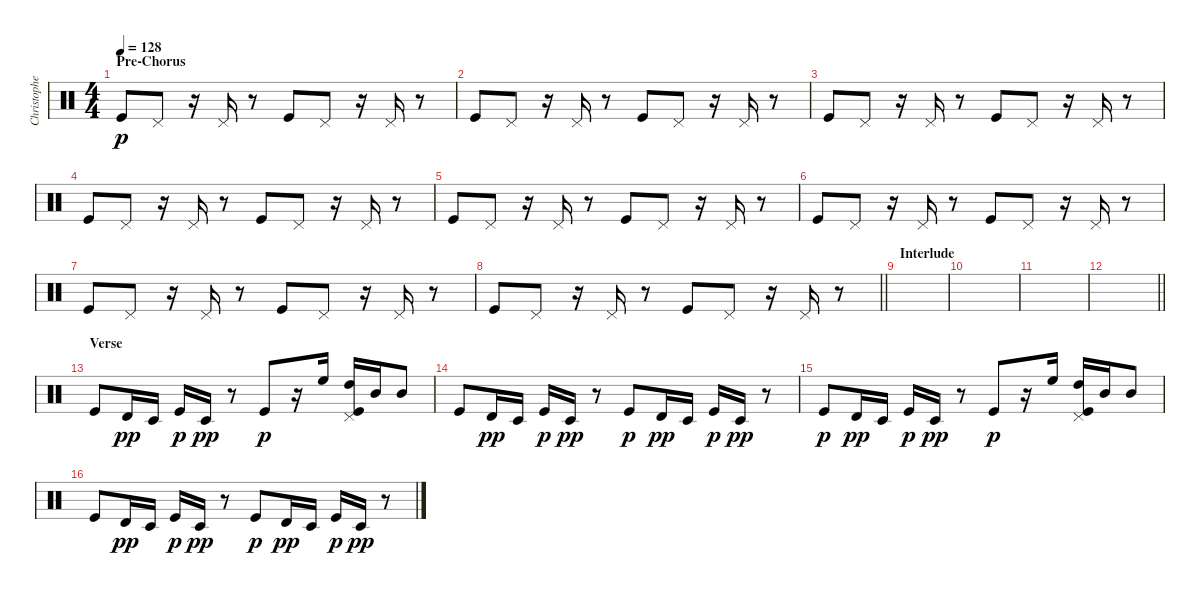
\track ("Christopher - Drum Effects" "Christophe") {instrument percussion}
\staff {score}
\articulation defaults
\ts (4 4)
\section ("" "Pre-Chorus")
\tempo 128
\clef neutral
\ks c "Kick (hit)".8{dy p} "Pedal Hi-Hat (hit)".8
r.16 "Pedal Hi-Hat (hit)".16 r.8 "Kick (hit)".8 "Pedal Hi-Hat (hit)".8 r.16 "Pedal Hi-Hat (hit)".16 r.8 |
"Kick (hit)".8 "Pedal Hi-Hat (hit)".8 r.16 "Pedal Hi-Hat (hit)".16 r.8 "Kick (hit)".8 "Pedal Hi-Hat (hit)".8 r.16 "Pedal Hi-Hat (hit)".16 r.8 |
"Kick (hit)".8 "Pedal Hi-Hat (hit)".8 r.16 "Pedal Hi-Hat (hit)".16 r.8 "Kick (hit)".8 "Pedal Hi-Hat (hit)".8 r.16 "Pedal Hi-Hat (hit)".16 r.8 |
"Kick (hit)".8 "Pedal Hi-Hat (hit)".8 r.16 "Pedal Hi-Hat (hit)".16 r.8 "Kick (hit)".8 "Pedal Hi-Hat (hit)".8 r.16 "Pedal Hi-Hat (hit)".16 r.8 |
"Kick (hit)".8 "Pedal Hi-Hat (hit)".8 r.16 "Pedal Hi-Hat (hit)".16 r.8 "Kick (hit)".8 "Pedal Hi-Hat (hit)".8 r.16 "Pedal Hi-Hat (hit)".16 r.8 |
"Kick (hit)".8 "Pedal Hi-Hat (hit)".8 r.16 "Pedal Hi-Hat (hit)".16 r.8 "Kick (hit)".8 "Pedal Hi-Hat (hit)".8 r.16 "Pedal Hi-Hat (hit)".16 r.8 |
"Kick (hit)".8 "Pedal Hi-Hat (hit)".8 r.16 "Pedal Hi-Hat (hit)".16 r.8 "Kick (hit)".8 "Pedal Hi-Hat (hit)".8 r.16 "Pedal Hi-Hat (hit)".16 r.8 |
\barLineRight lightlight "Kick (hit)".8 "Pedal Hi-Hat (hit)".8
r.16 "Pedal Hi-Hat (hit)".16 r.8 "Kick (hit)".8 "Pedal Hi-Hat (hit)".8 r.16 "Pedal Hi-Hat (hit)".16 r.8 |
\section ("" "Interlude")
|
|
|
\barLineRight lightlight
|
\section ("" "Verse")
"Kick (hit)".8 "Timbale high (hit)".16{dy pp} "Timbale low (hit)".16 "Kick (hit)".16{dy p} "Timbale low (hit)".16{dy pp} r.8 "Kick (hit)".8{dy p} r.16 "High Floor Tom (hit)".16 ("Pedal Hi-Hat (hit)" "High Tom (hit)" "Kick (hit)").16 "Mid Tom (hit)".16 "Mid Tom (hit)".8 |
"Kick (hit)".8 "Timbale high (hit)".16{dy pp} "Timbale low (hit)".16 "Kick (hit)".16{dy p} "Timbale low (hit)".16{dy pp} r.8 "Kick (hit)".8{dy p} "Timbale high (hit)".16{dy pp} "Timbale low (hit)".16 "Kick (hit)".16{dy p} "Timbale low (hit)".16{dy pp} r.8 |
"Kick (hit)".8{dy p} "Timbale high (hit)".16{dy pp} "Timbale low (hit)".16 "Kick (hit)".16{dy p} "Timbale low (hit)".16{dy pp} r.8 "Kick (hit)".8{dy p} r.16 "High Floor Tom (hit)".16 ("Pedal Hi-Hat (hit)" "High Tom (hit)" "Kick (hit)").16 "Mid Tom (hit)".16 "Mid Tom (hit)".8 |
"Kick (hit)".8 "Timbale high (hit)".16{dy pp} "Timbale low (hit)".16 "Kick (hit)".16{dy p} "Timbale low (hit)".16{dy pp} r.8 "Kick (hit)".8{dy p} "Timbale high (hit)".16{dy pp} "Timbale low (hit)".16 "Kick (hit)".16{dy p} "Timbale low (hit)".16{dy pp} r.8
